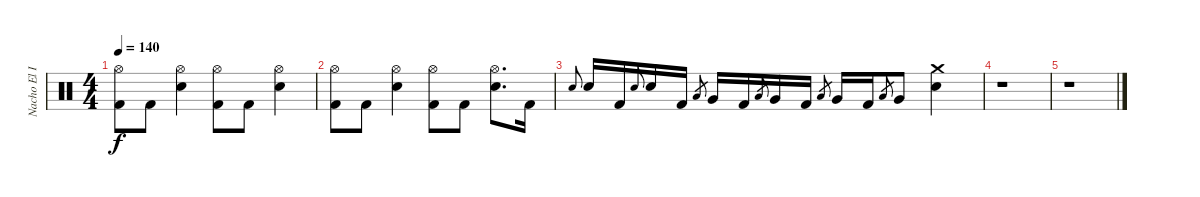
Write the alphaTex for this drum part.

\track ("Nacho El Implacable Gonzalez" "Nacho El I") {instrument percussion}
\staff {score}
\articulation defaults
\ts (4 4)
\tempo 140
\clef neutral
\ks c
("Hi-Hat (open)" "Kick (hit) 2").8{dy f} "Kick (hit) 2".8 ("Hi-Hat (open)" "Electric Snare (hit)").4 ("Hi-Hat (open)" "Kick (hit) 2").8 "Kick (hit) 2".8 ("Hi-Hat (open)" "Electric Snare (hit)").4 |
("Hi-Hat (open)" "Kick (hit) 2").8 "Kick (hit) 2".8 ("Hi-Hat (open)" "Electric Snare (hit)").4 ("Hi-Hat (open)" "Kick (hit) 2").8 "Kick (hit) 2".8 ("Hi-Hat (open)" "Electric Snare (hit)").8{d} "Kick (hit) 2".16 |
"Electric Snare (hit)".8{gr onbeat} "Electric Snare (hit)".16 "Kick (hit) 2".16 "Electric Snare (hit)".8{gr onbeat} "Electric Snare (hit)".16 "Kick (hit) 2".16 "Low Tom (hit)".8{gr} "Very Low Tom (hit)".16 "Kick (hit) 2".16 "Low Tom (hit)".8{gr} "Very Low Tom (hit)".16 "Kick (hit) 2".16 "Low Tom (hit)".8{gr} "Very Low Tom (hit)".16 "Kick (hit) 2".16 "Low Tom (hit)".8{gr} "Very Low Tom (hit)".8 ("Crash medium (hit)" "Electric Snare (hit)").4 |
r.1 |
r.1
